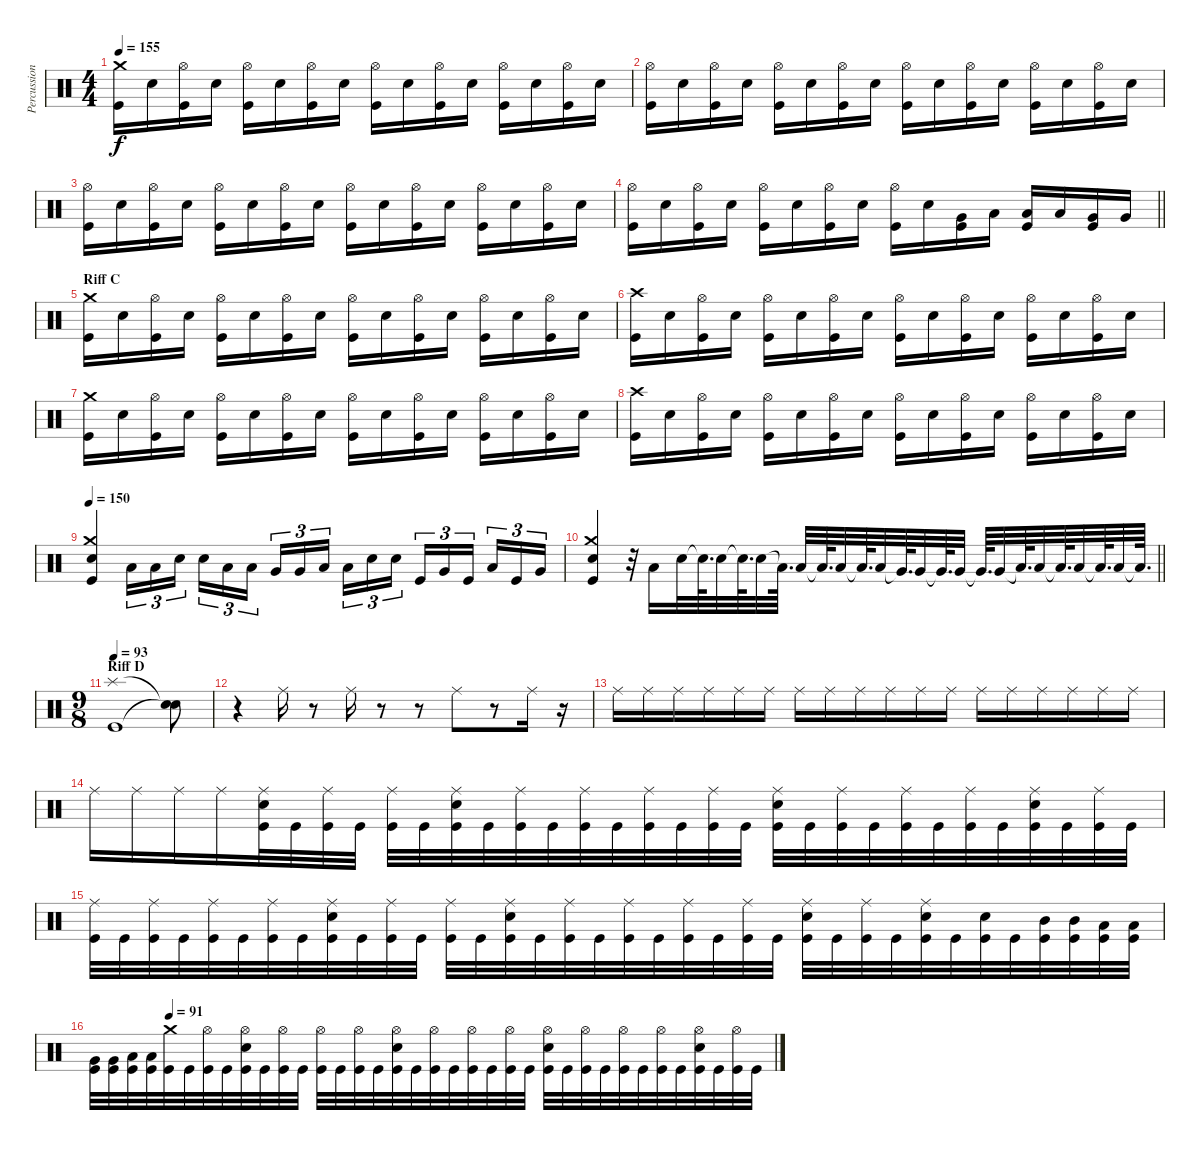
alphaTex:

\track ("Percussion" "Percussion") {instrument percussion}
\staff {score}
\articulation defaults
\ts (4 4)
\tempo 155
\clef neutral
\ks c
("Kick (hit)" "Crash medium (hit)").16{dy f} "Snare (hit) 2".16 ("Kick (hit)" "Hi-Hat (open)").16 "Snare (hit) 2".16 ("Kick (hit)" "Hi-Hat (open)").16 "Snare (hit) 2".16 ("Kick (hit)" "Hi-Hat (open)").16 "Snare (hit) 2".16 ("Kick (hit)" "Hi-Hat (open)").16 "Snare (hit) 2".16 ("Kick (hit)" "Hi-Hat (open)").16 "Snare (hit) 2".16 ("Kick (hit)" "Hi-Hat (open)").16 "Snare (hit) 2".16 ("Kick (hit)" "Hi-Hat (open)").16 "Snare (hit) 2".16 |
("Kick (hit)" "Hi-Hat (open)").16 "Snare (hit) 2".16 ("Kick (hit)" "Hi-Hat (open)").16 "Snare (hit) 2".16 ("Kick (hit)" "Hi-Hat (open)").16 "Snare (hit) 2".16 ("Kick (hit)" "Hi-Hat (open)").16 "Snare (hit) 2".16 ("Kick (hit)" "Hi-Hat (open)").16 "Snare (hit) 2".16 ("Kick (hit)" "Hi-Hat (open)").16 "Snare (hit) 2".16 ("Kick (hit)" "Hi-Hat (open)").16 "Snare (hit) 2".16 ("Kick (hit)" "Hi-Hat (open)").16 "Snare (hit) 2".16 |
("Kick (hit)" "Hi-Hat (open)").16 "Snare (hit) 2".16 ("Kick (hit)" "Hi-Hat (open)").16 "Snare (hit) 2".16 ("Kick (hit)" "Hi-Hat (open)").16 "Snare (hit) 2".16 ("Kick (hit)" "Hi-Hat (open)").16 "Snare (hit) 2".16 ("Kick (hit)" "Hi-Hat (open)").16 "Snare (hit) 2".16 ("Kick (hit)" "Hi-Hat (open)").16 "Snare (hit) 2".16 ("Kick (hit)" "Hi-Hat (open)").16 "Snare (hit) 2".16 ("Kick (hit)" "Hi-Hat (open)").16 "Snare (hit) 2".16 |
\barLineRight lightlight
("Kick (hit)" "Hi-Hat (open)").16 "Snare (hit) 2".16 ("Kick (hit)" "Hi-Hat (open)").16 "Snare (hit) 2".16 ("Kick (hit)" "Hi-Hat (open)").16 "Snare (hit) 2".16 ("Kick (hit)" "Hi-Hat (open)").16 "Snare (hit) 2".16 ("Kick (hit)" "Hi-Hat (open)").16 "Snare (hit) 2".16 ("Kick (hit)" "Very Low Tom (hit)").16 "Low Tom (hit)".16 ("Kick (hit)" "Low Tom (hit)").16 "Low Tom (hit)".16 ("Kick (hit)" "Very Low Tom (hit)").16 "Very Low Tom (hit)".16 |
\section ("" "Riff C")
("Kick (hit)" "Crash medium (hit)").16 "Snare (hit) 2".16 ("Kick (hit)" "Hi-Hat (open)").16 "Snare (hit) 2".16 ("Kick (hit)" "Hi-Hat (open)").16 "Snare (hit) 2".16 ("Kick (hit)" "Hi-Hat (open)").16 "Snare (hit) 2".16 ("Kick (hit)" "Hi-Hat (open)").16 "Snare (hit) 2".16 ("Kick (hit)" "Hi-Hat (open)").16 "Snare (hit) 2".16 ("Kick (hit)" "Hi-Hat (open)").16 "Snare (hit) 2".16 ("Kick (hit)" "Hi-Hat (open)").16 "Snare (hit) 2".16 |
("Kick (hit)" "Crash high (hit)").16 "Snare (hit) 2".16 ("Kick (hit)" "Hi-Hat (open)").16 "Snare (hit) 2".16 ("Kick (hit)" "Hi-Hat (open)").16 "Snare (hit) 2".16 ("Kick (hit)" "Hi-Hat (open)").16 "Snare (hit) 2".16 ("Kick (hit)" "Hi-Hat (open)").16 "Snare (hit) 2".16 ("Kick (hit)" "Hi-Hat (open)").16 "Snare (hit) 2".16 ("Kick (hit)" "Hi-Hat (open)").16 "Snare (hit) 2".16 ("Kick (hit)" "Hi-Hat (open)").16 "Snare (hit) 2".16 |
("Kick (hit)" "Crash medium (hit)").16 "Snare (hit) 2".16 ("Kick (hit)" "Hi-Hat (open)").16 "Snare (hit) 2".16 ("Kick (hit)" "Hi-Hat (open)").16 "Snare (hit) 2".16 ("Kick (hit)" "Hi-Hat (open)").16 "Snare (hit) 2".16 ("Kick (hit)" "Hi-Hat (open)").16 "Snare (hit) 2".16 ("Kick (hit)" "Hi-Hat (open)").16 "Snare (hit) 2".16 ("Kick (hit)" "Hi-Hat (open)").16 "Snare (hit) 2".16 ("Kick (hit)" "Hi-Hat (open)").16 "Snare (hit) 2".16 |
("Kick (hit)" "Crash high (hit)").16 "Snare (hit) 2".16 ("Kick (hit)" "Hi-Hat (open)").16 "Snare (hit) 2".16 ("Kick (hit)" "Hi-Hat (open)").16 "Snare (hit) 2".16 ("Kick (hit)" "Hi-Hat (open)").16 "Snare (hit) 2".16 ("Kick (hit)" "Hi-Hat (open)").16 "Snare (hit) 2".16 ("Kick (hit)" "Hi-Hat (open)").16 "Snare (hit) 2".16 ("Kick (hit)" "Hi-Hat (open)").16 "Snare (hit) 2".16 ("Kick (hit)" "Hi-Hat (open)").16 "Snare (hit) 2".16 |
\tempo 150
("Kick (hit)" "Crash medium (hit)" "Snare (hit) 2").4 "Low Floor Tom (hit)".16{tu (3 2)} "Low Floor Tom (hit)".16{tu (3 2)} "Snare (hit) 2".16{tu (3 2) beam splitsecondary} "Snare (hit) 2".16{tu (3 2)} "Low Tom (hit)".16{tu (3 2)} "Low Tom (hit)".16{tu (3 2)} "Very Low Tom (hit)".16{tu (3 2)} "Very Low Tom (hit)".16{tu (3 2)} "Low Floor Tom (hit)".16{tu (3 2) beam splitsecondary} "Low Floor Tom (hit)".16{tu (3 2)} "Snare (hit) 2".16{tu (3 2)} "Snare (hit) 2".16{tu (3 2)} "Kick (hit)".16{tu (3 2)} "Very Low Tom (hit)".16{tu (3 2)} "Kick (hit)".16{tu (3 2) beam splitsecondary} "Low Floor Tom (hit)".16{tu (3 2)} "Kick (hit)".16{tu (3 2)} "Very Low Tom (hit)".16{tu (3 2)} |
\barLineRight lightlight
("Kick (hit)" "Crash medium (hit)" "Snare (hit) 2").4 r.32 "Low Floor Tom (hit)".16 "Snare (hit) 2".32 "Snare (hit) 2"{t}.64{d} "Snare (hit) 2".32 "Snare (hit) 2"{t}.64{d} "Snare (hit) 2".32 "Low Tom (hit)"{t}.64{d} "Low Tom (hit)".32 "Low Tom (hit)"{t}.64{d} "Low Tom (hit)".32 "Low Tom (hit)"{t}.64{d} "Low Tom (hit)".32 "Very Low Tom (hit)"{t}.64{d} "Very Low Tom (hit)".32 "Very Low Tom (hit)"{t}.64{d} "Very Low Tom (hit)".32 "Very Low Tom (hit)"{t}.64{d} "Very Low Tom (hit)".32 "Low Floor Tom (hit)"{t}.64{d} "Low Floor Tom (hit)".32 "Low Floor Tom (hit)"{t}.64{d} "Low Floor Tom (hit)".32 "Low Floor Tom (hit)"{t}.64{d} "Low Floor Tom (hit)".32 "Low Floor Tom (hit)"{t}.64{d} |
\ts (9 8)
\section ("" "Riff D")
\tempo 93
("Kick (hit)" "Splash (hit)").1 ("Snare (hit)"{t} "Snare (hit)"{t}).8 |
r.4 "Ride (middle)".16 r.8 "Ride (middle)".16 r.8 r.8 "Ride (middle)".8 r.8 "Ride (middle)".16 r.16 |
"Ride (middle)".16 "Ride (middle)".16 "Ride (middle)".16 "Ride (middle)".16 "Ride (middle)".16 "Ride (middle)".16 "Ride (middle)".16 "Ride (middle)".16 "Ride (middle)".16 "Ride (middle)".16 "Ride (middle)".16 "Ride (middle)".16 "Ride (middle)".16 "Ride (middle)".16 "Ride (middle)".16 "Ride (middle)".16 "Ride (middle)".16 "Ride (middle)".16 |
"Ride (middle)".16 "Ride (middle)".16 "Ride (middle)".16 "Ride (middle)".16 ("Kick (hit)" "Ride (middle)" "Snare (hit) 2").32 "Kick (hit)".32 ("Kick (hit)" "Ride (middle)").32 "Kick (hit)".32 ("Kick (hit)" "Ride (middle)").32 "Kick (hit)".32 ("Kick (hit)" "Ride (middle)" "Snare (hit) 2").32 "Kick (hit)".32 ("Kick (hit)" "Ride (middle)").32 "Kick (hit)".32 ("Kick (hit)" "Ride (middle)").32 "Kick (hit)".32 ("Kick (hit)" "Ride (middle)").32 "Kick (hit)".32 ("Kick (hit)" "Ride (middle)").32 "Kick (hit)".32 ("Kick (hit)" "Ride (middle)" "Snare (hit) 2").32 "Kick (hit)".32 ("Kick (hit)" "Ride (middle)").32 "Kick (hit)".32 ("Kick (hit)" "Ride (middle)").32 "Kick (hit)".32 ("Kick (hit)" "Ride (middle)").32 "Kick (hit)".32 ("Kick (hit)" "Ride (middle)" "Snare (hit) 2").32 "Kick (hit)".32 ("Kick (hit)" "Ride (middle)").32 "Kick (hit)".32 |
("Kick (hit)" "Ride (middle)").32 "Kick (hit)".32 ("Kick (hit)" "Ride (middle)").32 "Kick (hit)".32 ("Kick (hit)" "Ride (middle)").32 "Kick (hit)".32 ("Kick (hit)" "Ride (middle)").32 "Kick (hit)".32 ("Kick (hit)" "Ride (middle)" "Snare (hit) 2").32 "Kick (hit)".32 ("Kick (hit)" "Ride (middle)").32 "Kick (hit)".32 ("Kick (hit)" "Ride (middle)").32 "Kick (hit)".32 ("Kick (hit)" "Ride (middle)" "Snare (hit) 2").32 "Kick (hit)".32 ("Kick (hit)" "Ride (middle)").32 "Kick (hit)".32 ("Kick (hit)" "Ride (middle)").32 "Kick (hit)".32 ("Kick (hit)" "Ride (middle)").32 "Kick (hit)".32 ("Kick (hit)" "Ride (middle)").32 "Kick (hit)".32 ("Kick (hit)" "Ride (middle)" "Snare (hit) 2").32 "Kick (hit)".32 ("Kick (hit)" "Ride (middle)").32 "Kick (hit)".32 ("Kick (hit)" "Ride (middle)" "Snare (hit) 2").32 "Kick (hit)".32 ("Kick (hit)" "Snare (hit) 2").32 "Kick (hit)".32 ("Kick (hit)" "Mid Tom (hit)").32 ("Kick (hit)" "Mid Tom (hit)").32 ("Kick (hit)" "Low Tom (hit)").32 ("Kick (hit)" "Low Tom (hit)").32 |
\tempo (91 0.1111111111111111)
("Kick (hit)" "Very Low Tom (hit)").32 ("Kick (hit)" "Very Low Tom (hit)").32 ("Kick (hit)" "Low Floor Tom (hit)").32 ("Kick (hit)" "Low Floor Tom (hit)").32 ("Kick (hit)" "Crash medium (hit)").32 "Kick (hit)".32 ("Kick (hit)" "Hi-Hat (open)").32 "Kick (hit)".32 ("Kick (hit)" "Hi-Hat (open)" "Snare (hit) 2").32 "Kick (hit)".32 ("Kick (hit)" "Hi-Hat (open)").32 "Kick (hit)".32 ("Kick (hit)" "Hi-Hat (open)").32 "Kick (hit)".32 ("Kick (hit)" "Hi-Hat (open)").32 "Kick (hit)".32 ("Kick (hit)" "Hi-Hat (open)" "Snare (hit) 2").32 "Kick (hit)".32 ("Kick (hit)" "Hi-Hat (open)").32 "Kick (hit)".32 ("Kick (hit)" "Hi-Hat (open)").32 "Kick (hit)".32 ("Kick (hit)" "Hi-Hat (open)").32 "Kick (hit)".32 ("Kick (hit)" "Hi-Hat (open)" "Snare (hit) 2").32 "Kick (hit)".32 ("Kick (hit)" "Hi-Hat (open)").32 "Kick (hit)".32 ("Kick (hit)" "Hi-Hat (open)").32 "Kick (hit)".32 ("Kick (hit)" "Hi-Hat (open)").32 "Kick (hit)".32 ("Kick (hit)" "Hi-Hat (open)" "Snare (hit) 2").32 "Kick (hit)".32 ("Kick (hit)" "Hi-Hat (open)").32 "Kick (hit)".32
